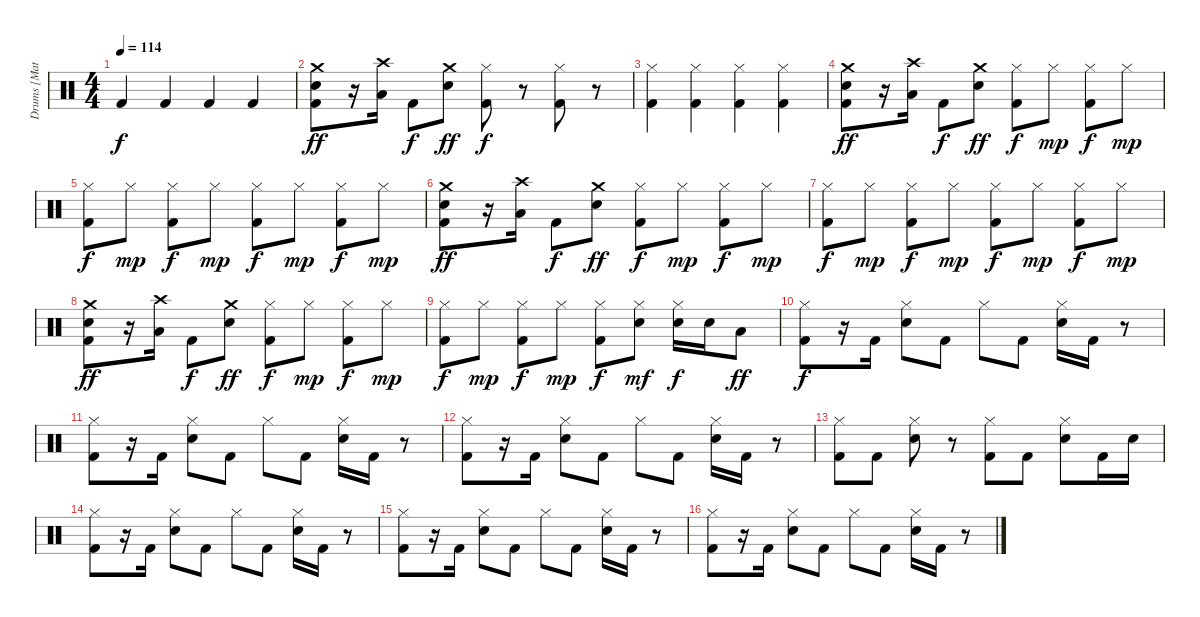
\track ("Drums [Matt]" "Drums [Mat") {instrument percussion}
\staff {score}
\articulation defaults
\ts (4 4)
\tempo 114
\clef neutral
\ks c "Kick (hit) 2".4{dy f} "Kick (hit) 2".4 "Kick (hit) 2".4 "Kick (hit) 2".4
|
("Kick (hit) 2" "Snare (hit) 2" "Crash medium (hit)").8{dy ff} r.16 ("Crash high (hit)" "Low Tom (hit)").16 "Kick (hit) 2".8{dy f} ("Snare (hit) 2" "Crash medium (hit)").8{dy ff} ("Hi-Hat (closed)" "Kick (hit) 2").8{dy f} r.8 ("Hi-Hat (closed)" "Kick (hit) 2").8 r.8 |
("Hi-Hat (closed)" "Kick (hit) 2").4 ("Hi-Hat (closed)" "Kick (hit) 2").4 ("Hi-Hat (closed)" "Kick (hit) 2").4 ("Hi-Hat (closed)" "Kick (hit) 2").4 |
("Kick (hit) 2" "Snare (hit) 2" "Crash medium (hit)").8{dy ff} r.16 ("Crash high (hit)" "Low Tom (hit)").16 "Kick (hit) 2".8{dy f} ("Snare (hit) 2" "Crash medium (hit)").8{dy ff} ("Hi-Hat (closed)" "Kick (hit) 2").8{dy f} "Hi-Hat (closed)".8{dy mp} ("Hi-Hat (closed)" "Kick (hit) 2").8{dy f} "Hi-Hat (closed)".8{dy mp} |
("Hi-Hat (closed)" "Kick (hit) 2").8{dy f} "Hi-Hat (closed)".8{dy mp} ("Hi-Hat (closed)" "Kick (hit) 2").8{dy f} "Hi-Hat (closed)".8{dy mp} ("Hi-Hat (closed)" "Kick (hit) 2").8{dy f} "Hi-Hat (closed)".8{dy mp} ("Hi-Hat (closed)" "Kick (hit) 2").8{dy f} "Hi-Hat (closed)".8{dy mp} |
("Kick (hit) 2" "Snare (hit) 2" "Crash medium (hit)").8{dy ff} r.16 ("Crash high (hit)" "Low Tom (hit)").16 "Kick (hit) 2".8{dy f} ("Snare (hit) 2" "Crash medium (hit)").8{dy ff} ("Hi-Hat (closed)" "Kick (hit) 2").8{dy f} "Hi-Hat (closed)".8{dy mp} ("Hi-Hat (closed)" "Kick (hit) 2").8{dy f} "Hi-Hat (closed)".8{dy mp} |
("Hi-Hat (closed)" "Kick (hit) 2").8{dy f} "Hi-Hat (closed)".8{dy mp} ("Hi-Hat (closed)" "Kick (hit) 2").8{dy f} "Hi-Hat (closed)".8{dy mp} ("Hi-Hat (closed)" "Kick (hit) 2").8{dy f} "Hi-Hat (closed)".8{dy mp} ("Hi-Hat (closed)" "Kick (hit) 2").8{dy f} "Hi-Hat (closed)".8{dy mp} |
("Kick (hit) 2" "Snare (hit) 2" "Crash medium (hit)").8{dy ff} r.16 ("Crash high (hit)" "Low Tom (hit)").16 "Kick (hit) 2".8{dy f} ("Snare (hit) 2" "Crash medium (hit)").8{dy ff} ("Hi-Hat (closed)" "Kick (hit) 2").8{dy f} "Hi-Hat (closed)".8{dy mp} ("Hi-Hat (closed)" "Kick (hit) 2").8{dy f} "Hi-Hat (closed)".8{dy mp} |
("Hi-Hat (closed)" "Kick (hit) 2").8{dy f} "Hi-Hat (closed)".8{dy mp} ("Hi-Hat (closed)" "Kick (hit) 2").8{dy f} "Hi-Hat (closed)".8{dy mp} ("Hi-Hat (closed)" "Kick (hit) 2").8{dy f} ("Hi-Hat (closed)" "Snare (hit) 2").8{dy mf} ("Hi-Hat (closed)" "Snare (hit) 2").16{dy f} "Snare (hit) 2".16 "Low Tom (hit)".8{dy ff} |
("Hi-Hat (closed)" "Kick (hit) 2").8{dy f} r.16 "Kick (hit) 2".16 ("Hi-Hat (closed)" "Snare (hit) 2").8 "Kick (hit) 2".8 "Hi-Hat (closed)".8 "Kick (hit) 2".8 ("Hi-Hat (closed)" "Snare (hit) 2").16 "Kick (hit) 2".16 r.8 |
("Hi-Hat (closed)" "Kick (hit) 2").8 r.16 "Kick (hit) 2".16 ("Hi-Hat (closed)" "Snare (hit) 2").8 "Kick (hit) 2".8 "Hi-Hat (closed)".8 "Kick (hit) 2".8 ("Hi-Hat (closed)" "Snare (hit) 2").16 "Kick (hit) 2".16 r.8 |
("Hi-Hat (closed)" "Kick (hit) 2").8 r.16 "Kick (hit) 2".16 ("Hi-Hat (closed)" "Snare (hit) 2").8 "Kick (hit) 2".8 "Hi-Hat (closed)".8 "Kick (hit) 2".8 ("Hi-Hat (closed)" "Snare (hit) 2").16 "Kick (hit) 2".16 r.8 |
("Hi-Hat (closed)" "Kick (hit) 2").8 "Kick (hit) 2".8 ("Hi-Hat (closed)" "Snare (hit) 2").8 r.8 ("Hi-Hat (closed)" "Kick (hit) 2").8 "Kick (hit) 2".8 ("Hi-Hat (closed)" "Snare (hit) 2").8 "Kick (hit) 2".16 "Snare (hit) 2".16 |
("Hi-Hat (closed)" "Kick (hit) 2").8 r.16 "Kick (hit) 2".16 ("Hi-Hat (closed)" "Snare (hit) 2").8 "Kick (hit) 2".8 "Hi-Hat (closed)".8 "Kick (hit) 2".8 ("Hi-Hat (closed)" "Snare (hit) 2").16 "Kick (hit) 2".16 r.8 |
("Hi-Hat (closed)" "Kick (hit) 2").8 r.16 "Kick (hit) 2".16 ("Hi-Hat (closed)" "Snare (hit) 2").8 "Kick (hit) 2".8 "Hi-Hat (closed)".8 "Kick (hit) 2".8 ("Hi-Hat (closed)" "Snare (hit) 2").16 "Kick (hit) 2".16 r.8 |
("Hi-Hat (closed)" "Kick (hit) 2").8 r.16 "Kick (hit) 2".16 ("Hi-Hat (closed)" "Snare (hit) 2").8 "Kick (hit) 2".8 "Hi-Hat (closed)".8 "Kick (hit) 2".8 ("Hi-Hat (closed)" "Snare (hit) 2").16 "Kick (hit) 2".16 r.8
